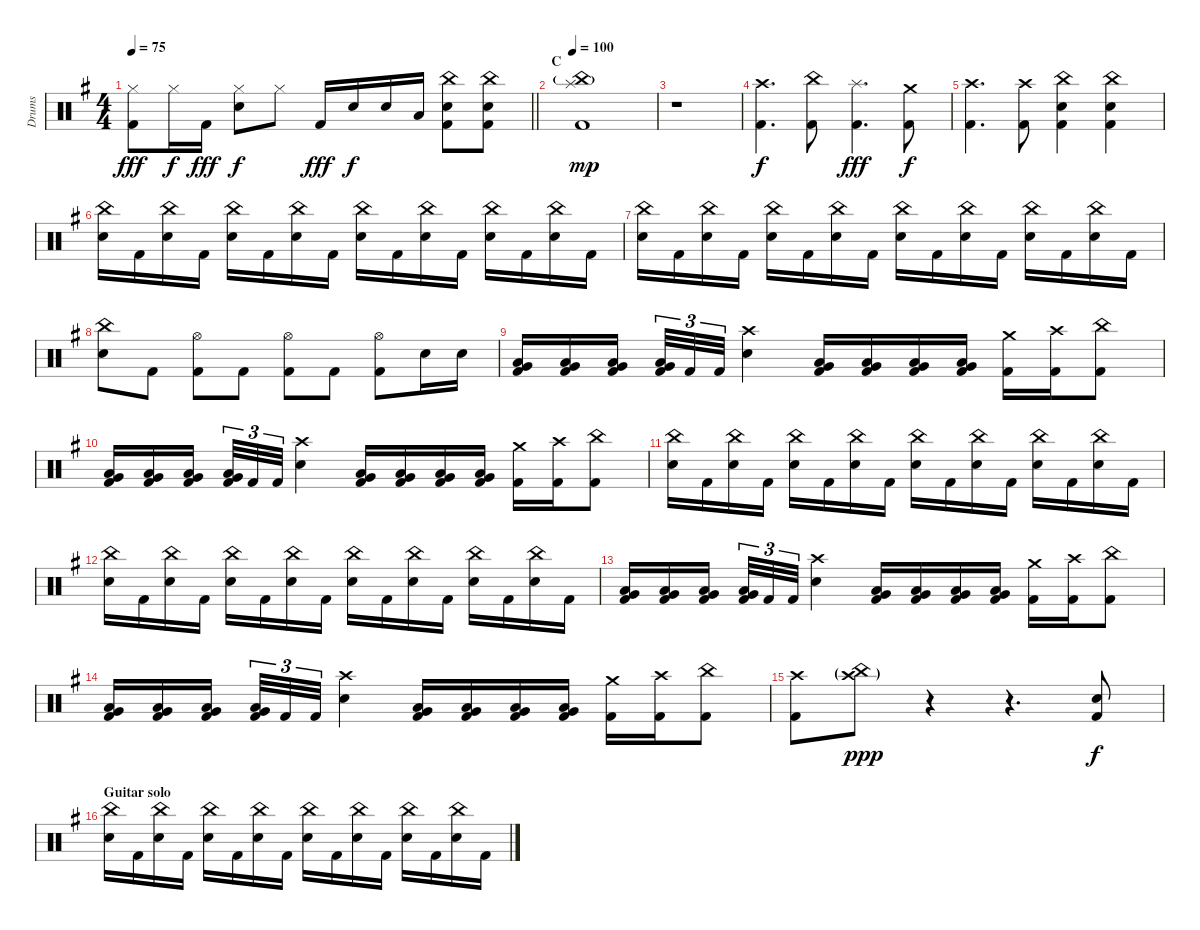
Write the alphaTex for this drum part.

\track ("Drums" "Drums") {instrument percussion}
\staff {score}
\articulation defaults
\ts (4 4)
\tempo 75
\clef neutral
\barLineRight lightlight
\ks eminor
("Hi-Hat (closed)" "Kick (hit) 2").8{dy fff} "Hi-Hat (closed)".16{dy f} "Kick (hit) 2".16{dy fff} ("Hi-Hat (closed)" "Snare (hit) 2").8{dy f} "Hi-Hat (closed)".8 "Kick (hit) 2".16{dy fff} "Snare (hit) 2".16{dy f} "Snare (hit) 2".16 "Low Tom (hit)".16 ("China (hit)" "Snare (hit) 2" "Kick (hit) 2").8 ("China (hit)" "Snare (hit) 2" "Kick (hit) 2").8 |
\section ("" "C")
\tempo 100
("Splash (hit)" "China (hit)"{g} "Kick (hit) 2").1{dy mp} |
r.1 |
("Crash high (hit)" "Kick (hit) 2").4{d dy f} ("China (hit)" "Kick (hit) 2").8 ("Splash (hit)" "Kick (hit) 2").4{d dy fff} ("Crash medium (hit)" "Kick (hit) 2").8{dy f} |
("Crash high (hit)" "Kick (hit) 2").4{d} ("Crash high (hit)" "Kick (hit) 2").8 ("China (hit)" "Snare (hit) 2" "Kick (hit) 2").4 ("China (hit)" "Snare (hit) 2" "Kick (hit) 2").4 |
("China (hit)" "Snare (hit) 2").16 "Kick (hit) 2".16 ("China (hit)" "Snare (hit) 2").16 "Kick (hit) 2".16 ("China (hit)" "Snare (hit) 2").16 "Kick (hit) 2".16 ("China (hit)" "Snare (hit) 2").16 "Kick (hit) 2".16 ("China (hit)" "Snare (hit) 2").16 "Kick (hit) 2".16 ("China (hit)" "Snare (hit) 2").16 "Kick (hit) 2".16 ("China (hit)" "Snare (hit) 2").16 "Kick (hit) 2".16 ("China (hit)" "Snare (hit) 2").16 "Kick (hit) 2".16 |
("China (hit)" "Snare (hit) 2").16 "Kick (hit) 2".16 ("China (hit)" "Snare (hit) 2").16 "Kick (hit) 2".16 ("China (hit)" "Snare (hit) 2").16 "Kick (hit) 2".16 ("China (hit)" "Snare (hit) 2").16 "Kick (hit) 2".16 ("China (hit)" "Snare (hit) 2").16 "Kick (hit) 2".16 ("China (hit)" "Snare (hit) 2").16 "Kick (hit) 2".16 ("China (hit)" "Snare (hit) 2").16 "Kick (hit) 2".16 ("China (hit)" "Snare (hit) 2").16 "Kick (hit) 2".16 |
("China (hit)" "Snare (hit) 2").8 "Kick (hit) 2".8 ("Hi-Hat (open)" "Kick (hit) 2").8 "Kick (hit) 2".8 ("Hi-Hat (open)" "Kick (hit) 2").8 "Kick (hit) 2".8 ("Hi-Hat (open)" "Kick (hit) 2").8 "Snare (hit) 2".16 "Snare (hit) 2".16 |
("Very Low Tom (hit)" "Low Tom (hit)" "Kick (hit) 2").16 ("Very Low Tom (hit)" "Low Tom (hit)" "Kick (hit) 2").16 ("Very Low Tom (hit)" "Low Tom (hit)" "Kick (hit) 2").16 ("Very Low Tom (hit)" "Low Tom (hit)" "Kick (hit) 2").32{tu (3 2)} "Kick (hit) 2".32{tu (3 2)} "Kick (hit) 2".32{tu (3 2)} ("Crash high (hit)" "Snare (hit) 2").4 ("Very Low Tom (hit)" "Low Tom (hit)" "Kick (hit) 2").16 ("Very Low Tom (hit)" "Low Tom (hit)" "Kick (hit) 2").16 ("Very Low Tom (hit)" "Low Tom (hit)" "Kick (hit) 2").16 ("Very Low Tom (hit)" "Low Tom (hit)" "Kick (hit) 2").16 ("Crash medium (hit)" "Kick (hit) 2").16 ("Crash high (hit)" "Kick (hit) 2").16 ("China (hit)" "Kick (hit) 2").8 |
("Very Low Tom (hit)" "Low Tom (hit)" "Kick (hit) 2").16 ("Very Low Tom (hit)" "Low Tom (hit)" "Kick (hit) 2").16 ("Very Low Tom (hit)" "Low Tom (hit)" "Kick (hit) 2").16 ("Very Low Tom (hit)" "Low Tom (hit)" "Kick (hit) 2").32{tu (3 2)} "Kick (hit) 2".32{tu (3 2)} "Kick (hit) 2".32{tu (3 2)} ("Crash high (hit)" "Snare (hit) 2").4 ("Very Low Tom (hit)" "Low Tom (hit)" "Kick (hit) 2").16 ("Very Low Tom (hit)" "Low Tom (hit)" "Kick (hit) 2").16 ("Very Low Tom (hit)" "Low Tom (hit)" "Kick (hit) 2").16 ("Very Low Tom (hit)" "Low Tom (hit)" "Kick (hit) 2").16 ("Crash medium (hit)" "Kick (hit) 2").16 ("Crash high (hit)" "Kick (hit) 2").16 ("China (hit)" "Kick (hit) 2").8 |
("China (hit)" "Snare (hit) 2").16 "Kick (hit) 2".16 ("China (hit)" "Snare (hit) 2").16 "Kick (hit) 2".16 ("China (hit)" "Snare (hit) 2").16 "Kick (hit) 2".16 ("China (hit)" "Snare (hit) 2").16 "Kick (hit) 2".16 ("China (hit)" "Snare (hit) 2").16 "Kick (hit) 2".16 ("China (hit)" "Snare (hit) 2").16 "Kick (hit) 2".16 ("China (hit)" "Snare (hit) 2").16 "Kick (hit) 2".16 ("China (hit)" "Snare (hit) 2").16 "Kick (hit) 2".16 |
("China (hit)" "Snare (hit) 2").16 "Kick (hit) 2".16 ("China (hit)" "Snare (hit) 2").16 "Kick (hit) 2".16 ("China (hit)" "Snare (hit) 2").16 "Kick (hit) 2".16 ("China (hit)" "Snare (hit) 2").16 "Kick (hit) 2".16 ("China (hit)" "Snare (hit) 2").16 "Kick (hit) 2".16 ("China (hit)" "Snare (hit) 2").16 "Kick (hit) 2".16 ("China (hit)" "Snare (hit) 2").16 "Kick (hit) 2".16 ("China (hit)" "Snare (hit) 2").16 "Kick (hit) 2".16 |
("Very Low Tom (hit)" "Low Tom (hit)" "Kick (hit) 2").16 ("Very Low Tom (hit)" "Low Tom (hit)" "Kick (hit) 2").16 ("Very Low Tom (hit)" "Low Tom (hit)" "Kick (hit) 2").16 ("Very Low Tom (hit)" "Low Tom (hit)" "Kick (hit) 2").32{tu (3 2)} "Kick (hit) 2".32{tu (3 2)} "Kick (hit) 2".32{tu (3 2)} ("Crash high (hit)" "Snare (hit) 2").4 ("Very Low Tom (hit)" "Low Tom (hit)" "Kick (hit) 2").16 ("Very Low Tom (hit)" "Low Tom (hit)" "Kick (hit) 2").16 ("Very Low Tom (hit)" "Low Tom (hit)" "Kick (hit) 2").16 ("Very Low Tom (hit)" "Low Tom (hit)" "Kick (hit) 2").16 ("Crash medium (hit)" "Kick (hit) 2").16 ("Crash high (hit)" "Kick (hit) 2").16 ("China (hit)" "Kick (hit) 2").8 |
("Very Low Tom (hit)" "Low Tom (hit)" "Kick (hit) 2").16 ("Very Low Tom (hit)" "Low Tom (hit)" "Kick (hit) 2").16 ("Very Low Tom (hit)" "Low Tom (hit)" "Kick (hit) 2").16 ("Very Low Tom (hit)" "Low Tom (hit)" "Kick (hit) 2").32{tu (3 2)} "Kick (hit) 2".32{tu (3 2)} "Kick (hit) 2".32{tu (3 2)} ("Crash high (hit)" "Snare (hit) 2").4 ("Very Low Tom (hit)" "Low Tom (hit)" "Kick (hit) 2").16 ("Very Low Tom (hit)" "Low Tom (hit)" "Kick (hit) 2").16 ("Very Low Tom (hit)" "Low Tom (hit)" "Kick (hit) 2").16 ("Very Low Tom (hit)" "Low Tom (hit)" "Kick (hit) 2").16 ("Crash medium (hit)" "Kick (hit) 2").16 ("Crash high (hit)" "Kick (hit) 2").16 ("China (hit)" "Kick (hit) 2").8 |
("Crash high (hit)" "Kick (hit) 2").8 ("Crash high (hit)"{g} "China (hit)"{g}).8{dy ppp} r.4 r.4{d} ("Snare (hit) 2" "Kick (hit) 2").8{dy f} |
\section ("" "Guitar solo")
("China (hit)" "Snare (hit) 2").16 "Kick (hit) 2".16 ("China (hit)" "Snare (hit) 2").16 "Kick (hit) 2".16 ("China (hit)" "Snare (hit) 2").16 "Kick (hit) 2".16 ("China (hit)" "Snare (hit) 2").16 "Kick (hit) 2".16 ("China (hit)" "Snare (hit) 2").16 "Kick (hit) 2".16 ("China (hit)" "Snare (hit) 2").16 "Kick (hit) 2".16 ("China (hit)" "Snare (hit) 2").16 "Kick (hit) 2".16 ("China (hit)" "Snare (hit) 2").16 "Kick (hit) 2".16
